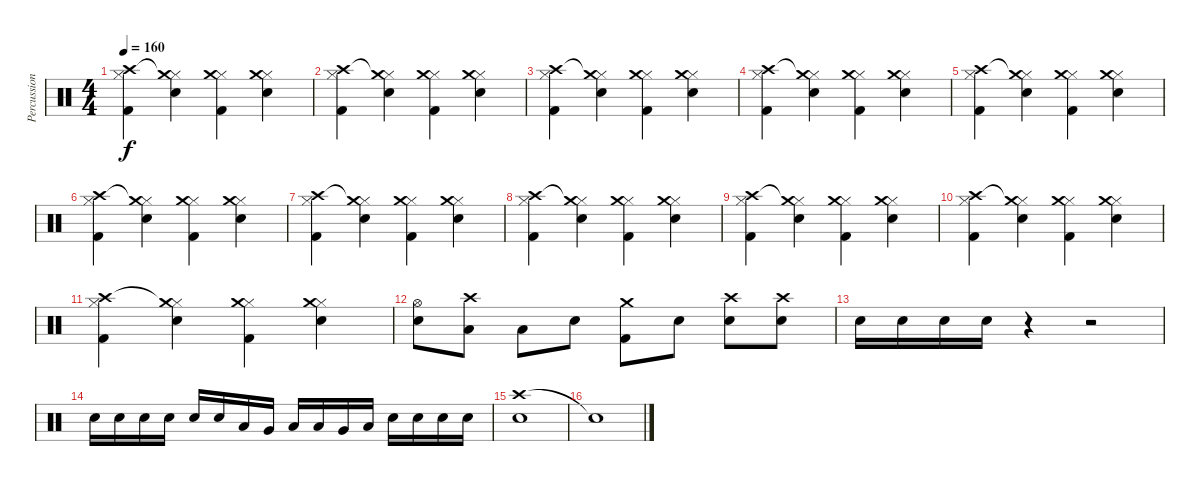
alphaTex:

\track ("Percussion" "Percussion") {instrument percussion}
\staff {score}
\articulation defaults
\ts (4 4)
\tempo 160
\clef neutral
\ks c
("Hi-Hat (closed)" "Crash high (hit)" "Kick (hit) 2").4{dy f} ("Hi-Hat (closed)" "Crash medium (hit)"{t} "Snare (hit) 2").4 ("Hi-Hat (closed)" "Crash medium (hit)" "Kick (hit) 2").4 ("Hi-Hat (closed)" "Crash medium (hit)" "Snare (hit) 2").4 |
("Hi-Hat (closed)" "Crash high (hit)" "Kick (hit) 2").4 ("Hi-Hat (closed)" "Crash medium (hit)"{t} "Snare (hit) 2").4 ("Hi-Hat (closed)" "Crash medium (hit)" "Kick (hit) 2").4 ("Hi-Hat (closed)" "Crash medium (hit)" "Snare (hit) 2").4 |
("Hi-Hat (closed)" "Crash high (hit)" "Kick (hit) 2").4 ("Hi-Hat (closed)" "Crash medium (hit)"{t} "Snare (hit) 2").4 ("Hi-Hat (closed)" "Crash medium (hit)" "Kick (hit) 2").4 ("Hi-Hat (closed)" "Crash medium (hit)" "Snare (hit) 2").4 |
("Hi-Hat (closed)" "Crash high (hit)" "Kick (hit) 2").4 ("Hi-Hat (closed)" "Crash medium (hit)"{t} "Snare (hit) 2").4 ("Hi-Hat (closed)" "Crash medium (hit)" "Kick (hit) 2").4 ("Hi-Hat (closed)" "Crash medium (hit)" "Snare (hit) 2").4 |
("Hi-Hat (closed)" "Crash high (hit)" "Kick (hit) 2").4 ("Hi-Hat (closed)" "Crash medium (hit)"{t} "Snare (hit) 2").4 ("Hi-Hat (closed)" "Crash medium (hit)" "Kick (hit) 2").4 ("Hi-Hat (closed)" "Crash medium (hit)" "Snare (hit) 2").4 |
("Hi-Hat (closed)" "Crash high (hit)" "Kick (hit) 2").4 ("Hi-Hat (closed)" "Crash medium (hit)"{t} "Snare (hit) 2").4 ("Hi-Hat (closed)" "Crash medium (hit)" "Kick (hit) 2").4 ("Hi-Hat (closed)" "Crash medium (hit)" "Snare (hit) 2").4 |
("Hi-Hat (closed)" "Crash high (hit)" "Kick (hit) 2").4 ("Hi-Hat (closed)" "Crash medium (hit)"{t} "Snare (hit) 2").4 ("Hi-Hat (closed)" "Crash medium (hit)" "Kick (hit) 2").4 ("Hi-Hat (closed)" "Crash medium (hit)" "Snare (hit) 2").4 |
("Hi-Hat (closed)" "Crash high (hit)" "Kick (hit) 2").4 ("Hi-Hat (closed)" "Crash medium (hit)"{t} "Snare (hit) 2").4 ("Hi-Hat (closed)" "Crash medium (hit)" "Kick (hit) 2").4 ("Hi-Hat (closed)" "Crash medium (hit)" "Snare (hit) 2").4 |
("Hi-Hat (closed)" "Crash high (hit)" "Kick (hit) 2").4 ("Hi-Hat (closed)" "Crash medium (hit)"{t} "Snare (hit) 2").4 ("Hi-Hat (closed)" "Crash medium (hit)" "Kick (hit) 2").4 ("Hi-Hat (closed)" "Crash medium (hit)" "Snare (hit) 2").4 |
("Hi-Hat (closed)" "Crash high (hit)" "Kick (hit) 2").4 ("Hi-Hat (closed)" "Crash medium (hit)"{t} "Snare (hit) 2").4 ("Hi-Hat (closed)" "Crash medium (hit)" "Kick (hit) 2").4 ("Hi-Hat (closed)" "Crash medium (hit)" "Snare (hit) 2").4 |
("Hi-Hat (closed)" "Crash high (hit)" "Kick (hit) 2").4 ("Hi-Hat (closed)" "Crash medium (hit)"{t} "Snare (hit) 2").4 ("Hi-Hat (closed)" "Crash medium (hit)" "Kick (hit) 2").4 ("Hi-Hat (closed)" "Crash medium (hit)" "Snare (hit) 2").4 |
("Hi-Hat (open)" "Snare (hit) 2").8 ("Crash high (hit)" "Low Tom (hit)").8 "Low Floor Tom (hit)".8 "Snare (hit) 2".8 ("Crash medium (hit)" "Kick (hit) 2").8 "Snare (hit) 2".8 ("Crash high (hit)" "Snare (hit) 2").8 ("Crash high (hit)" "Snare (hit) 2").8 |
"Snare (hit) 2".16 "Snare (hit) 2".16 "Snare (hit) 2".16 "Snare (hit) 2".16 r.4 r.2 |
"Snare (hit) 2".16 "Snare (hit) 2".16 "Snare (hit) 2".16 "Snare (hit) 2".16 "Snare (hit) 2".16 "Snare (hit) 2".16 "Low Tom (hit)".16 "Very Low Tom (hit)".16 "Low Floor Tom (hit)".16 "Low Tom (hit)".16 "Very Low Tom (hit)".16 "Low Tom (hit)".16 "Snare (hit) 2".16 "Snare (hit) 2".16 "Snare (hit) 2".16 "Snare (hit) 2".16 |
("Crash high (hit)" "Snare (hit) 2").1 |
"Snare (hit)"{t}.1
